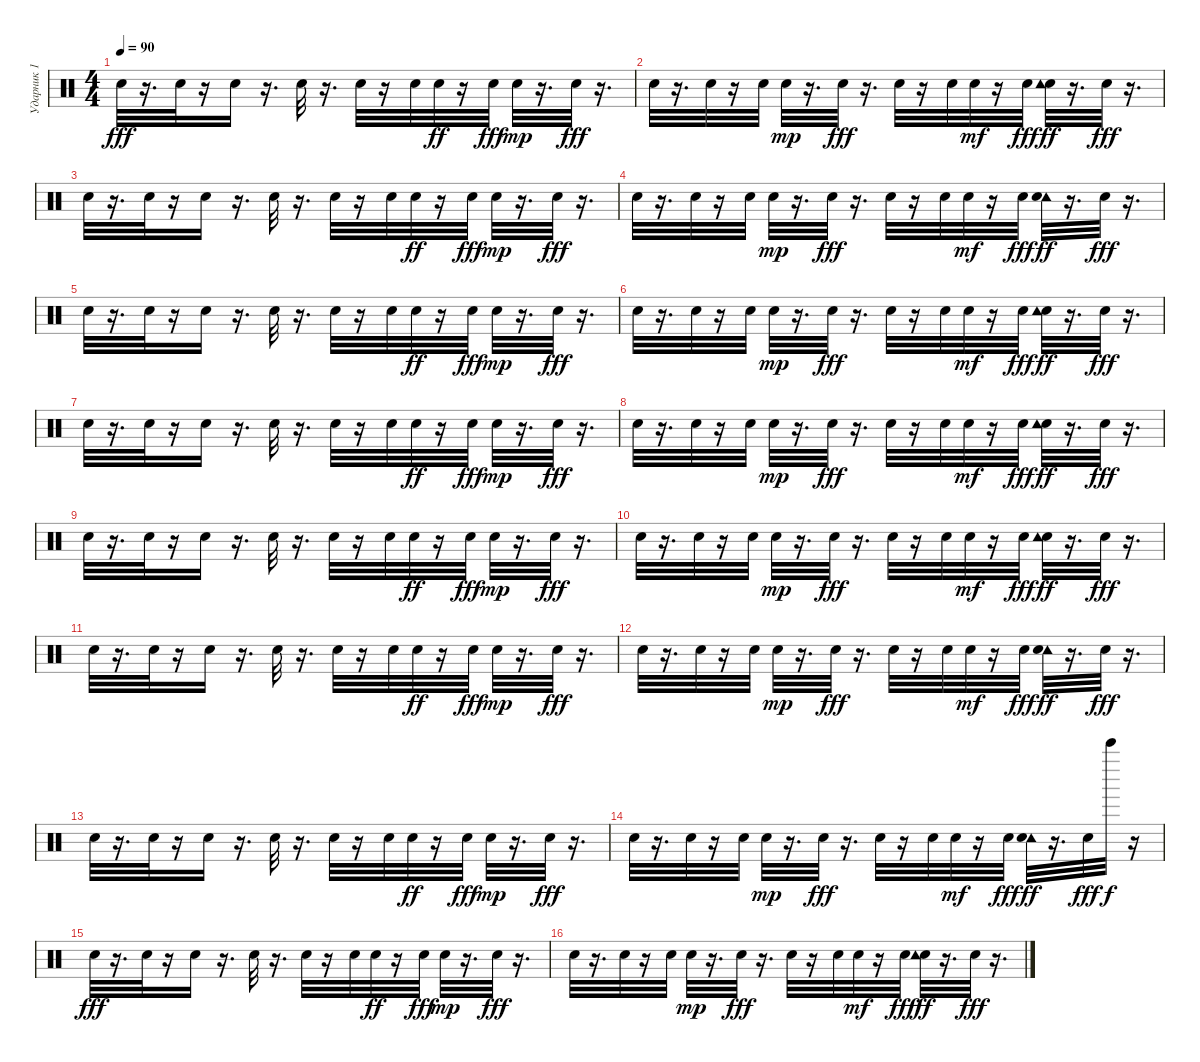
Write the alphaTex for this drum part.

\track ("Ударник 1" "Ударник 1") {instrument percussion}
\staff {score}
\articulation defaults
\ts (4 4)
\tempo 90
\clef neutral
\ks c "Snare (hit)".32{dy fff}
r.16{d} "Snare (hit)".32 r.16 "Snare (hit)".16 r.16{d} "Snare (hit)".32 r.16{d} "Snare (hit)".32 r.16 "Snare (hit)".32 "Snare (hit)".32{dy ff} r.16 "Snare (hit)".32{dy fff} "Snare (hit)".32{dy mp} r.16{d} "Snare (hit)".32{dy fff} r.16{d} |
"Snare (hit)".32 r.16{d} "Snare (hit)".32 r.16 "Snare (hit)".32 "Snare (hit)".32{dy mp} r.16{d} "Snare (hit)".32{dy fff} r.16{d} "Snare (hit)".32 r.16 "Snare (hit)".32 "Snare (hit)".32{dy mf} r.16 "Snare (hit)".32{dy fff} ("Snare (hit)" "Tambourine (hit)").32{dy ff} r.16{d} "Snare (hit)".32{dy fff} r.16{d} |
"Snare (hit)".32 r.16{d} "Snare (hit)".32 r.16 "Snare (hit)".16 r.16{d} "Snare (hit)".32 r.16{d} "Snare (hit)".32 r.16 "Snare (hit)".32 "Snare (hit)".32{dy ff} r.16 "Snare (hit)".32{dy fff} "Snare (hit)".32{dy mp} r.16{d} "Snare (hit)".32{dy fff} r.16{d} |
"Snare (hit)".32 r.16{d} "Snare (hit)".32 r.16 "Snare (hit)".32 "Snare (hit)".32{dy mp} r.16{d} "Snare (hit)".32{dy fff} r.16{d} "Snare (hit)".32 r.16 "Snare (hit)".32 "Snare (hit)".32{dy mf} r.16 "Snare (hit)".32{dy fff} ("Tambourine (hit)" "Snare (hit)").32{dy ff} r.16{d} "Snare (hit)".32{dy fff} r.16{d} |
"Snare (hit)".32 r.16{d} "Snare (hit)".32 r.16 "Snare (hit)".16 r.16{d} "Snare (hit)".32 r.16{d} "Snare (hit)".32 r.16 "Snare (hit)".32 "Snare (hit)".32{dy ff} r.16 "Snare (hit)".32{dy fff} "Snare (hit)".32{dy mp} r.16{d} "Snare (hit)".32{dy fff} r.16{d} |
"Snare (hit)".32 r.16{d} "Snare (hit)".32 r.16 "Snare (hit)".32 "Snare (hit)".32{dy mp} r.16{d} "Snare (hit)".32{dy fff} r.16{d} "Snare (hit)".32 r.16 "Snare (hit)".32 "Snare (hit)".32{dy mf} r.16 "Snare (hit)".32{dy fff} ("Snare (hit)" "Tambourine (hit)").32{dy ff} r.16{d} "Snare (hit)".32{dy fff} r.16{d} |
"Snare (hit)".32 r.16{d} "Snare (hit)".32 r.16 "Snare (hit)".16 r.16{d} "Snare (hit)".32 r.16{d} "Snare (hit)".32 r.16 "Snare (hit)".32 "Snare (hit)".32{dy ff} r.16 "Snare (hit)".32{dy fff} "Snare (hit)".32{dy mp} r.16{d} "Snare (hit)".32{dy fff} r.16{d} |
"Snare (hit)".32 r.16{d} "Snare (hit)".32 r.16 "Snare (hit)".32 "Snare (hit)".32{dy mp} r.16{d} "Snare (hit)".32{dy fff} r.16{d} "Snare (hit)".32 r.16 "Snare (hit)".32 "Snare (hit)".32{dy mf} r.16 "Snare (hit)".32{dy fff} ("Snare (hit)" "Tambourine (hit)").32{dy ff} r.16{d} "Snare (hit)".32{dy fff} r.16{d} |
"Snare (hit)".32 r.16{d} "Snare (hit)".32 r.16 "Snare (hit)".16 r.16{d} "Snare (hit)".32 r.16{d} "Snare (hit)".32 r.16 "Snare (hit)".32 "Snare (hit)".32{dy ff} r.16 "Snare (hit)".32{dy fff} "Snare (hit)".32{dy mp} r.16{d} "Snare (hit)".32{dy fff} r.16{d} |
"Snare (hit)".32 r.16{d} "Snare (hit)".32 r.16 "Snare (hit)".32 "Snare (hit)".32{dy mp} r.16{d} "Snare (hit)".32{dy fff} r.16{d} "Snare (hit)".32 r.16 "Snare (hit)".32 "Snare (hit)".32{dy mf} r.16 "Snare (hit)".32{dy fff} ("Snare (hit)" "Tambourine (hit)").32{dy ff} r.16{d} "Snare (hit)".32{dy fff} r.16{d} |
"Snare (hit)".32 r.16{d} "Snare (hit)".32 r.16 "Snare (hit)".16 r.16{d} "Snare (hit)".32 r.16{d} "Snare (hit)".32 r.16 "Snare (hit)".32 "Snare (hit)".32{dy ff} r.16 "Snare (hit)".32{dy fff} "Snare (hit)".32{dy mp} r.16{d} "Snare (hit)".32{dy fff} r.16{d} |
"Snare (hit)".32 r.16{d} "Snare (hit)".32 r.16 "Snare (hit)".32 "Snare (hit)".32{dy mp} r.16{d} "Snare (hit)".32{dy fff} r.16{d} "Snare (hit)".32 r.16 "Snare (hit)".32 "Snare (hit)".32{dy mf} r.16 "Snare (hit)".32{dy fff} ("Tambourine (hit)" "Snare (hit)").32{dy ff} r.16{d} "Snare (hit)".32{dy fff} r.16{d} |
"Snare (hit)".32 r.16{d} "Snare (hit)".32 r.16 "Snare (hit)".16 r.16{d} "Snare (hit)".32 r.16{d} "Snare (hit)".32 r.16 "Snare (hit)".32 "Snare (hit)".32{dy ff} r.16 "Snare (hit)".32{dy fff} "Snare (hit)".32{dy mp} r.16{d} "Snare (hit)".32{dy fff} r.16{d} |
"Snare (hit)".32 r.16{d} "Snare (hit)".32 r.16 "Snare (hit)".32 "Snare (hit)".32{dy mp} r.16{d} "Snare (hit)".32{dy fff} r.16{d} "Snare (hit)".32 r.16 "Snare (hit)".32 "Snare (hit)".32{dy mf} r.16 "Snare (hit)".32{dy fff} ("Tambourine (hit)" "Snare (hit)").32{dy ff} r.16{d} "Snare (hit)".32{dy fff} "Bell Tree (hit)".32{dy f} r.16 |
"Snare (hit)".32{dy fff} r.16{d} "Snare (hit)".32 r.16 "Snare (hit)".16 r.16{d} "Snare (hit)".32 r.16{d} "Snare (hit)".32 r.16 "Snare (hit)".32 "Snare (hit)".32{dy ff} r.16 "Snare (hit)".32{dy fff} "Snare (hit)".32{dy mp} r.16{d} "Snare (hit)".32{dy fff} r.16{d} |
"Snare (hit)".32 r.16{d} "Snare (hit)".32 r.16 "Snare (hit)".32 "Snare (hit)".32{dy mp} r.16{d} "Snare (hit)".32{dy fff} r.16{d} "Snare (hit)".32 r.16 "Snare (hit)".32 "Snare (hit)".32{dy mf} r.16 "Snare (hit)".32{dy fff} ("Snare (hit)" "Tambourine (hit)").32{dy ff} r.16{d} "Snare (hit)".32{dy fff} r.16{d}
